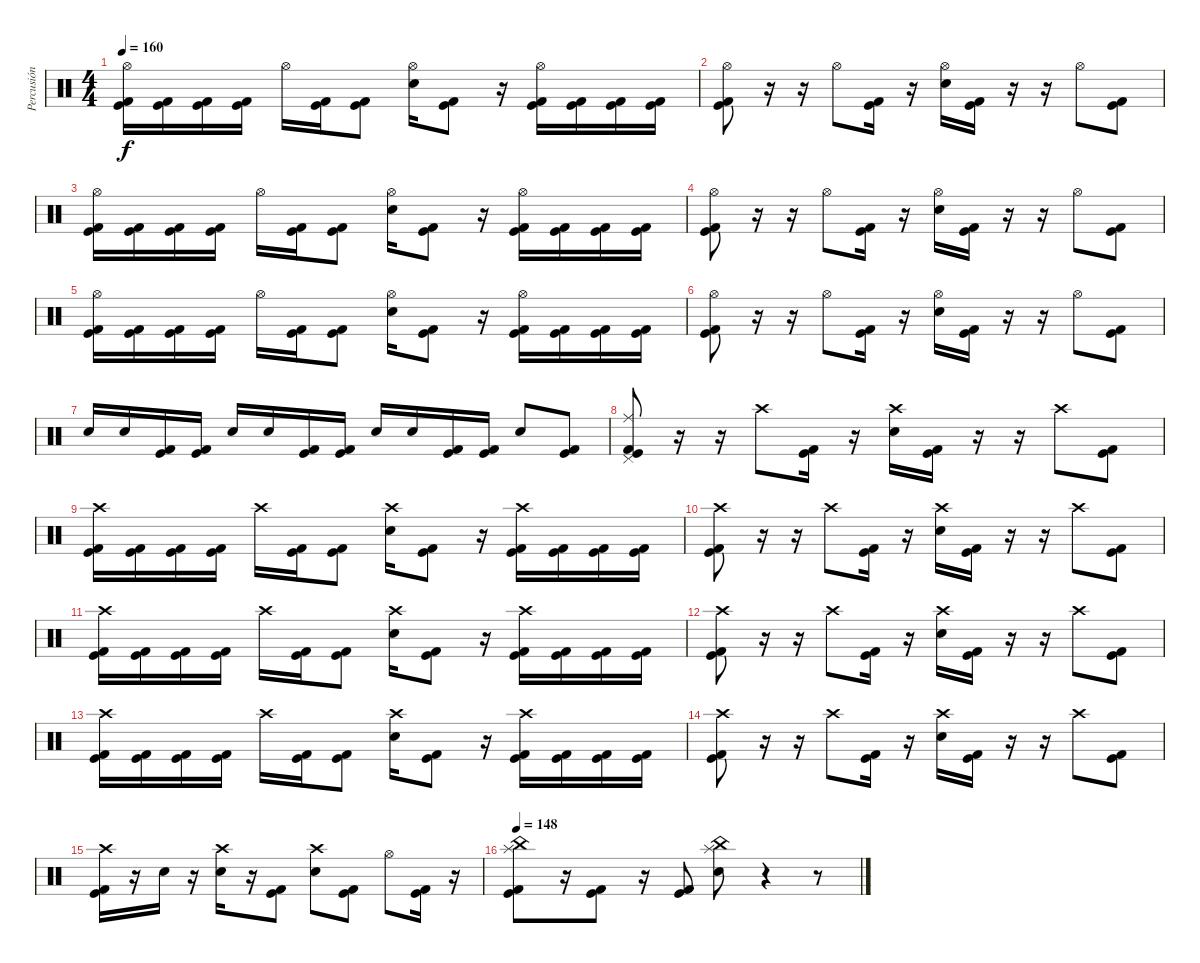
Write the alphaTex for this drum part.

\track ("Percusión" "Percusión") {instrument percussion}
\staff {score}
\articulation defaults
\ts (4 4)
\tempo 160
\clef neutral
\ks c
("Hi-Hat (open)" "Kick (hit)" "Kick (hit) 2").16{dy f} ("Kick (hit)" "Kick (hit) 2").16 ("Kick (hit)" "Kick (hit) 2").16 ("Kick (hit)" "Kick (hit) 2").16 "Hi-Hat (open)".16 ("Kick (hit)" "Kick (hit) 2").16 ("Kick (hit)" "Kick (hit) 2").8 ("Hi-Hat (open)" "Electric Snare (hit)").16 ("Kick (hit)" "Kick (hit) 2").8 r.16 ("Hi-Hat (open)" "Kick (hit) 2" "Kick (hit)").16 ("Kick (hit) 2" "Kick (hit)").16 ("Kick (hit) 2" "Kick (hit)").16 ("Kick (hit) 2" "Kick (hit)").16 |
("Hi-Hat (open)" "Kick (hit)" "Kick (hit) 2").8 r.16 r.16 "Hi-Hat (open)".8 ("Kick (hit)" "Kick (hit) 2").16 r.16 ("Hi-Hat (open)" "Electric Snare (hit)").16 ("Kick (hit)" "Kick (hit) 2").16 r.16 r.16 "Hi-Hat (open)".8 ("Kick (hit) 2" "Kick (hit)").8 |
("Hi-Hat (open)" "Kick (hit)" "Kick (hit) 2").16 ("Kick (hit)" "Kick (hit) 2").16 ("Kick (hit)" "Kick (hit) 2").16 ("Kick (hit)" "Kick (hit) 2").16 "Hi-Hat (open)".16 ("Kick (hit)" "Kick (hit) 2").16 ("Kick (hit)" "Kick (hit) 2").8 ("Hi-Hat (open)" "Electric Snare (hit)").16 ("Kick (hit)" "Kick (hit) 2").8 r.16 ("Hi-Hat (open)" "Kick (hit) 2" "Kick (hit)").16 ("Kick (hit) 2" "Kick (hit)").16 ("Kick (hit) 2" "Kick (hit)").16 ("Kick (hit) 2" "Kick (hit)").16 |
("Hi-Hat (open)" "Kick (hit)" "Kick (hit) 2").8 r.16 r.16 "Hi-Hat (open)".8 ("Kick (hit)" "Kick (hit) 2").16 r.16 ("Hi-Hat (open)" "Electric Snare (hit)").16 ("Kick (hit)" "Kick (hit) 2").16 r.16 r.16 "Hi-Hat (open)".8 ("Kick (hit) 2" "Kick (hit)").8 |
("Hi-Hat (open)" "Kick (hit)" "Kick (hit) 2").16 ("Kick (hit)" "Kick (hit) 2").16 ("Kick (hit)" "Kick (hit) 2").16 ("Kick (hit)" "Kick (hit) 2").16 "Hi-Hat (open)".16 ("Kick (hit)" "Kick (hit) 2").16 ("Kick (hit)" "Kick (hit) 2").8 ("Hi-Hat (open)" "Electric Snare (hit)").16 ("Kick (hit)" "Kick (hit) 2").8 r.16 ("Hi-Hat (open)" "Kick (hit) 2" "Kick (hit)").16 ("Kick (hit) 2" "Kick (hit)").16 ("Kick (hit) 2" "Kick (hit)").16 ("Kick (hit) 2" "Kick (hit)").16 |
("Hi-Hat (open)" "Kick (hit)" "Kick (hit) 2").8 r.16 r.16 "Hi-Hat (open)".8 ("Kick (hit)" "Kick (hit) 2").16 r.16 ("Hi-Hat (open)" "Electric Snare (hit)").16 ("Kick (hit)" "Kick (hit) 2").16 r.16 r.16 "Hi-Hat (open)".8 ("Kick (hit) 2" "Kick (hit)").8 |
"Electric Snare (hit)".16 "Electric Snare (hit)".16 ("Kick (hit)" "Kick (hit) 2").16 ("Kick (hit)" "Kick (hit) 2").16 "Electric Snare (hit)".16 "Electric Snare (hit)".16 ("Kick (hit)" "Kick (hit) 2").16 ("Kick (hit)" "Kick (hit) 2").16 "Electric Snare (hit)".16 "Electric Snare (hit)".16 ("Kick (hit) 2" "Kick (hit)").16 ("Kick (hit) 2" "Kick (hit)").16 "Electric Snare (hit)".8 ("Kick (hit)" "Kick (hit) 2").8 |
("Ride (middle)" "Pedal Hi-Hat (hit)" "Kick (hit)" "Kick (hit) 2").8 r.16 r.16 "Crash high (hit)".8 ("Kick (hit)" "Kick (hit) 2").16 r.16 ("Crash high (hit)" "Electric Snare (hit)").16 ("Kick (hit)" "Kick (hit) 2").16 r.16 r.16 "Crash high (hit)".8 ("Kick (hit) 2" "Kick (hit)").8 |
("Crash high (hit)" "Kick (hit)" "Kick (hit) 2").16 ("Kick (hit)" "Kick (hit) 2").16 ("Kick (hit)" "Kick (hit) 2").16 ("Kick (hit)" "Kick (hit) 2").16 "Crash high (hit)".16 ("Kick (hit)" "Kick (hit) 2").16 ("Kick (hit)" "Kick (hit) 2").8 ("Crash high (hit)" "Electric Snare (hit)").16 ("Kick (hit)" "Kick (hit) 2").8 r.16 ("Crash high (hit)" "Kick (hit) 2" "Kick (hit)").16 ("Kick (hit) 2" "Kick (hit)").16 ("Kick (hit) 2" "Kick (hit)").16 ("Kick (hit) 2" "Kick (hit)").16 |
("Crash high (hit)" "Kick (hit)" "Kick (hit) 2").8 r.16 r.16 "Crash high (hit)".8 ("Kick (hit)" "Kick (hit) 2").16 r.16 ("Crash high (hit)" "Electric Snare (hit)").16 ("Kick (hit)" "Kick (hit) 2").16 r.16 r.16 "Crash high (hit)".8 ("Kick (hit) 2" "Kick (hit)").8 |
("Crash high (hit)" "Kick (hit)" "Kick (hit) 2").16 ("Kick (hit)" "Kick (hit) 2").16 ("Kick (hit)" "Kick (hit) 2").16 ("Kick (hit)" "Kick (hit) 2").16 "Crash high (hit)".16 ("Kick (hit)" "Kick (hit) 2").16 ("Kick (hit)" "Kick (hit) 2").8 ("Crash high (hit)" "Electric Snare (hit)").16 ("Kick (hit)" "Kick (hit) 2").8 r.16 ("Crash high (hit)" "Kick (hit) 2" "Kick (hit)").16 ("Kick (hit) 2" "Kick (hit)").16 ("Kick (hit) 2" "Kick (hit)").16 ("Kick (hit) 2" "Kick (hit)").16 |
("Crash high (hit)" "Kick (hit)" "Kick (hit) 2").8 r.16 r.16 "Crash high (hit)".8 ("Kick (hit)" "Kick (hit) 2").16 r.16 ("Crash high (hit)" "Electric Snare (hit)").16 ("Kick (hit)" "Kick (hit) 2").16 r.16 r.16 "Crash high (hit)".8 ("Kick (hit) 2" "Kick (hit)").8 |
("Crash high (hit)" "Kick (hit)" "Kick (hit) 2").16 ("Kick (hit)" "Kick (hit) 2").16 ("Kick (hit)" "Kick (hit) 2").16 ("Kick (hit)" "Kick (hit) 2").16 "Crash high (hit)".16 ("Kick (hit)" "Kick (hit) 2").16 ("Kick (hit)" "Kick (hit) 2").8 ("Crash high (hit)" "Electric Snare (hit)").16 ("Kick (hit)" "Kick (hit) 2").8 r.16 ("Crash high (hit)" "Kick (hit) 2" "Kick (hit)").16 ("Kick (hit) 2" "Kick (hit)").16 ("Kick (hit) 2" "Kick (hit)").16 ("Kick (hit) 2" "Kick (hit)").16 |
("Crash high (hit)" "Kick (hit)" "Kick (hit) 2").8 r.16 r.16 "Crash high (hit)".8 ("Kick (hit)" "Kick (hit) 2").16 r.16 ("Crash high (hit)" "Electric Snare (hit)").16 ("Kick (hit)" "Kick (hit) 2").16 r.16 r.16 "Crash high (hit)".8 ("Kick (hit) 2" "Kick (hit)").8 |
("Crash high (hit)" "Kick (hit)" "Kick (hit) 2").16 r.16 "Electric Snare (hit)".16 r.16 ("Crash high (hit)" "Electric Snare (hit)").16 r.16 ("Kick (hit)" "Kick (hit) 2").8 ("Crash high (hit)" "Electric Snare (hit)").8 ("Kick (hit)" "Kick (hit) 2").8 "Hi-Hat (open)".8 ("Kick (hit) 2" "Kick (hit)").16 r.16 |
\tempo 148
("Splash (hit)" "China (hit)" "Kick (hit)" "Kick (hit) 2").8 r.16 ("Kick (hit)" "Kick (hit) 2").8 r.16 ("Kick (hit)" "Kick (hit) 2").8 ("Splash (hit)" "China (hit)" "Electric Snare (hit)").8 r.4 r.8
